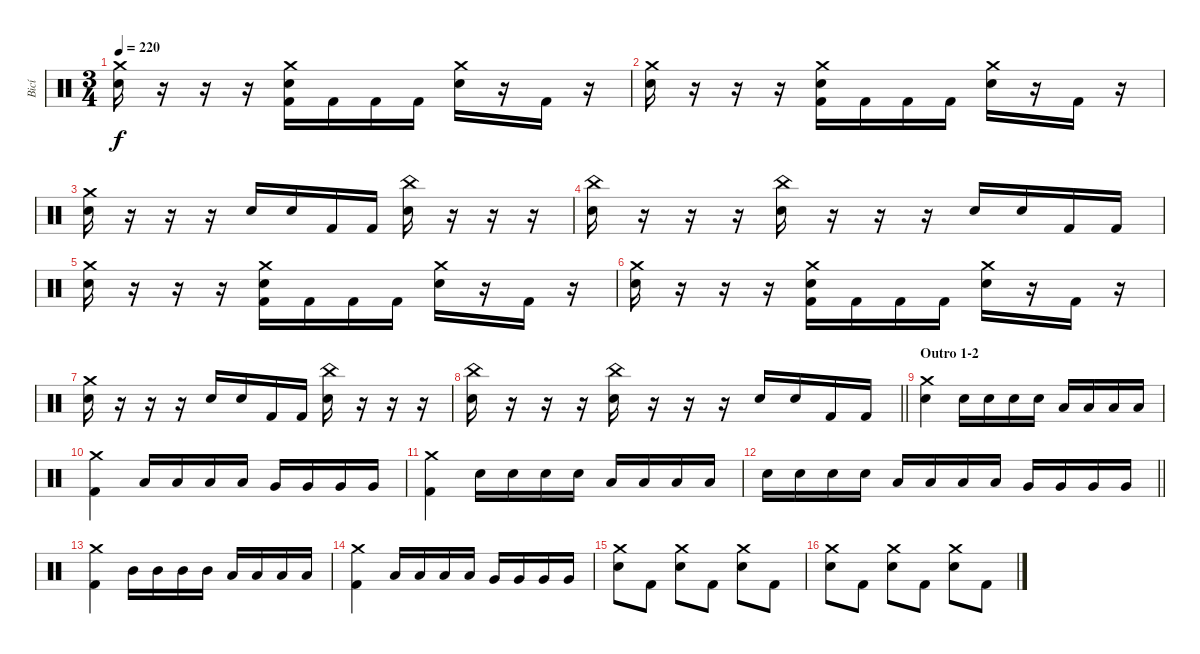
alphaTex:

\track ("Bicí" "Bicí") {instrument percussion}
\staff {score}
\articulation defaults
\ts (3 4)
\tempo 220
\clef neutral
\ks c
("Crash medium (hit)" "Electric Snare (hit)").16{dy f} r.16 r.16 r.16 ("Crash medium (hit)" "Electric Snare (hit)" "Kick (hit) 2").16 "Kick (hit) 2".16 "Kick (hit) 2".16 "Kick (hit) 2".16 ("Crash medium (hit)" "Electric Snare (hit)").16 r.16 "Kick (hit) 2".16 r.16 |
("Crash medium (hit)" "Electric Snare (hit)").16 r.16 r.16 r.16 ("Crash medium (hit)" "Electric Snare (hit)" "Kick (hit) 2").16 "Kick (hit) 2".16 "Kick (hit) 2".16 "Kick (hit) 2".16 ("Crash medium (hit)" "Electric Snare (hit)").16 r.16 "Kick (hit) 2".16 r.16 |
("Crash medium (hit)" "Electric Snare (hit)").16 r.16 r.16 r.16 "Electric Snare (hit)".16 "Electric Snare (hit)".16 "Kick (hit) 2".16 "Kick (hit) 2".16 ("China (hit)" "Electric Snare (hit)").16 r.16 r.16 r.16 |
("China (hit)" "Electric Snare (hit)").16 r.16 r.16 r.16 ("China (hit)" "Electric Snare (hit)").16 r.16 r.16 r.16 "Electric Snare (hit)".16 "Electric Snare (hit)".16 "Kick (hit) 2".16 "Kick (hit) 2".16 |
("Crash medium (hit)" "Electric Snare (hit)").16 r.16 r.16 r.16 ("Crash medium (hit)" "Electric Snare (hit)" "Kick (hit) 2").16 "Kick (hit) 2".16 "Kick (hit) 2".16 "Kick (hit) 2".16 ("Crash medium (hit)" "Electric Snare (hit)").16 r.16 "Kick (hit) 2".16 r.16 |
("Crash medium (hit)" "Electric Snare (hit)").16 r.16 r.16 r.16 ("Crash medium (hit)" "Electric Snare (hit)" "Kick (hit) 2").16 "Kick (hit) 2".16 "Kick (hit) 2".16 "Kick (hit) 2".16 ("Crash medium (hit)" "Electric Snare (hit)").16 r.16 "Kick (hit) 2".16 r.16 |
("Crash medium (hit)" "Electric Snare (hit)").16 r.16 r.16 r.16 "Electric Snare (hit)".16 "Electric Snare (hit)".16 "Kick (hit) 2".16 "Kick (hit) 2".16 ("China (hit)" "Electric Snare (hit)").16 r.16 r.16 r.16 |
\barLineRight lightlight
("China (hit)" "Electric Snare (hit)").16 r.16 r.16 r.16 ("China (hit)" "Electric Snare (hit)").16 r.16 r.16 r.16 "Electric Snare (hit)".16 "Electric Snare (hit)".16 "Kick (hit) 2".16 "Kick (hit) 2".16 |
\section ("" "Outro 1-2")
("Crash medium (hit)" "Electric Snare (hit)").4 "Electric Snare (hit)".16 "Electric Snare (hit)".16 "Electric Snare (hit)".16 "Electric Snare (hit)".16 "Low Tom (hit)".16 "Low Tom (hit)".16 "Low Tom (hit)".16 "Low Tom (hit)".16 |
("Crash medium (hit)" "Kick (hit) 2").4 "Low Tom (hit)".16 "Low Tom (hit)".16 "Low Tom (hit)".16 "Low Tom (hit)".16 "Very Low Tom (hit)".16 "Very Low Tom (hit)".16 "Very Low Tom (hit)".16 "Very Low Tom (hit)".16 |
("Crash medium (hit)" "Kick (hit) 2").4 "Electric Snare (hit)".16 "Electric Snare (hit)".16 "Electric Snare (hit)".16 "Electric Snare (hit)".16 "Low Tom (hit)".16 "Low Tom (hit)".16 "Low Tom (hit)".16 "Low Tom (hit)".16 |
\barLineRight lightlight "Electric Snare (hit)".16 "Electric Snare (hit)".16 "Electric Snare (hit)".16 "Electric Snare (hit)".16 "Low Tom (hit)".16 "Low Tom (hit)".16 "Low Tom (hit)".16 "Low Tom (hit)".16 "Very Low Tom (hit)".16 "Very Low Tom (hit)".16 "Very Low Tom (hit)".16 "Very Low Tom (hit)".16
|
("Crash medium (hit)" "Kick (hit) 2").4 "Mid Tom (hit)".16 "Mid Tom (hit)".16 "Mid Tom (hit)".16 "Mid Tom (hit)".16 "Low Tom (hit)".16 "Low Tom (hit)".16 "Low Tom (hit)".16 "Low Tom (hit)".16 |
("Crash medium (hit)" "Kick (hit) 2").4 "Low Tom (hit)".16 "Low Tom (hit)".16 "Low Tom (hit)".16 "Low Tom (hit)".16 "Very Low Tom (hit)".16 "Very Low Tom (hit)".16 "Very Low Tom (hit)".16 "Very Low Tom (hit)".16 |
("Crash medium (hit)" "Electric Snare (hit)").8 "Kick (hit) 2".8 ("Crash medium (hit)" "Electric Snare (hit)").8 "Kick (hit) 2".8 ("Crash medium (hit)" "Electric Snare (hit)").8 "Kick (hit) 2".8 |
("Crash medium (hit)" "Electric Snare (hit)").8 "Kick (hit) 2".8 ("Crash medium (hit)" "Electric Snare (hit)").8 "Kick (hit) 2".8 ("Crash medium (hit)" "Electric Snare (hit)").8 "Kick (hit) 2".8
